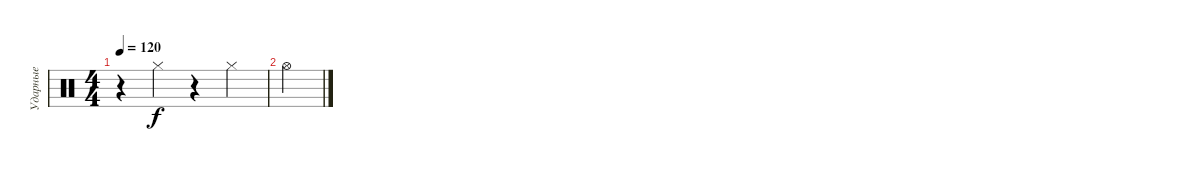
\track ("Ударные" "Ударные") {instrument percussion}
\staff {score}
\articulation defaults
\ts (4 4)
\tempo 120
\clef neutral
\ks c
r.4{dy f} "Hi-Hat (closed)".4 r.4 "Hi-Hat (closed)".4 |
"Hi-Hat (open)".4
